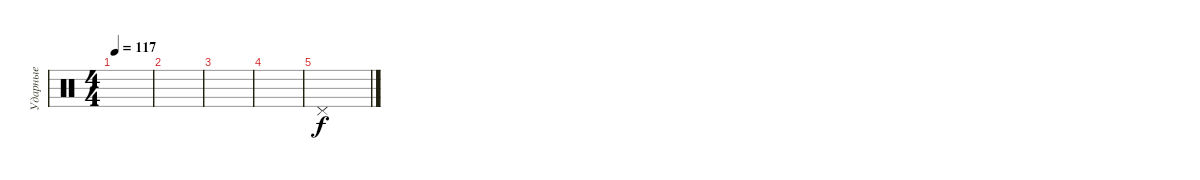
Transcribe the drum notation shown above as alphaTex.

\track ("Ударные" "Ударные") {instrument percussion}
\staff {score}
\articulation defaults
\ts (4 4)
\tempo 117
\clef neutral
\ks c
|
|
|
|
"Pedal Hi-Hat (hit)".1
